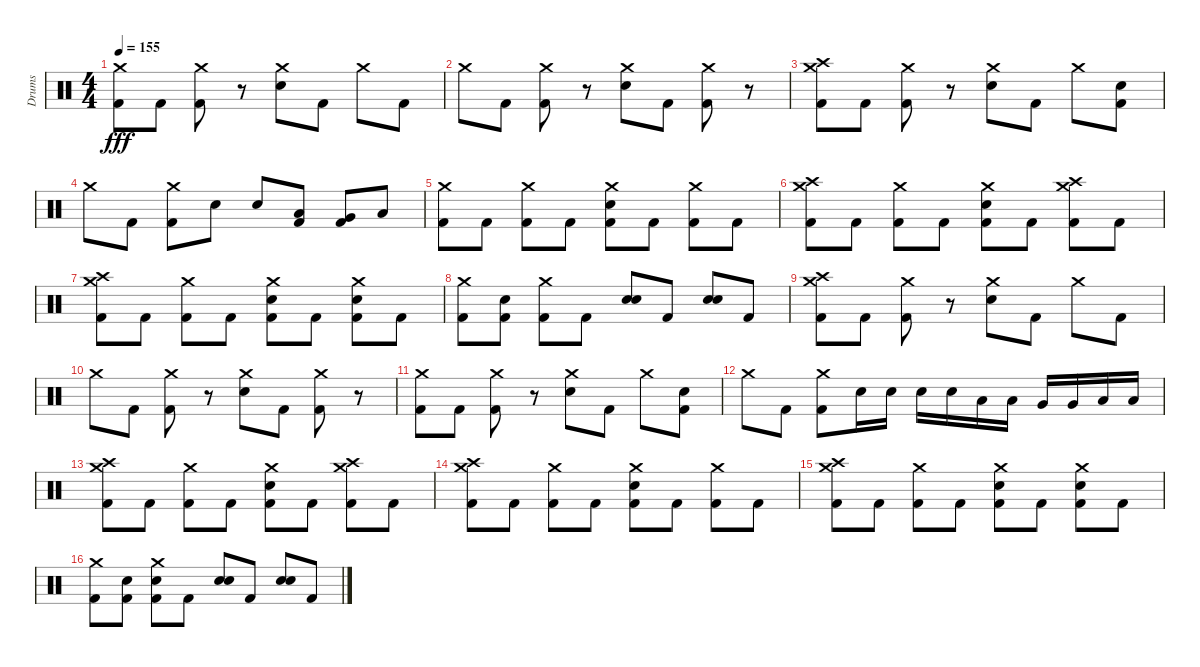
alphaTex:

\track ("Drums" "Drums") {instrument percussion}
\staff {score}
\articulation defaults
\ts (4 4)
\tempo 155
\clef neutral
\ks c
("Crash medium (hit)" "Kick (hit) 2").8{dy fff} "Kick (hit) 2".8 ("Crash medium (hit)" "Kick (hit) 2").8 r.8 ("Crash medium (hit)" "Electric Snare (hit)").8 "Kick (hit) 2".8 "Crash medium (hit)".8 "Kick (hit) 2".8 |
"Crash medium (hit)".8 "Kick (hit) 2".8 ("Crash medium (hit)" "Kick (hit) 2").8 r.8 ("Crash medium (hit)" "Electric Snare (hit)").8 "Kick (hit) 2".8 ("Crash medium (hit)" "Kick (hit) 2").8 r.8 |
("Crash high (hit)" "Crash medium (hit)" "Kick (hit) 2").8 "Kick (hit) 2".8 ("Crash medium (hit)" "Kick (hit) 2").8 r.8 ("Crash medium (hit)" "Electric Snare (hit)").8 "Kick (hit) 2".8 "Crash medium (hit)".8 ("Electric Snare (hit)" "Kick (hit) 2").8 |
"Crash medium (hit)".8 "Kick (hit) 2".8 ("Crash medium (hit)" "Kick (hit) 2").8 "Electric Snare (hit)".8 "Electric Snare (hit)".8 ("Low Tom (hit)" "Kick (hit) 2").8 ("Very Low Tom (hit)" "Kick (hit) 2").8 "Low Floor Tom (hit)".8 |
("Crash medium (hit)" "Kick (hit) 2").8 "Kick (hit) 2".8 ("Crash medium (hit)" "Kick (hit) 2").8 "Kick (hit) 2".8 ("Crash medium (hit)" "Electric Snare (hit)" "Kick (hit) 2").8 "Kick (hit) 2".8 ("Crash medium (hit)" "Kick (hit) 2").8 "Kick (hit) 2".8 |
("Crash high (hit)" "Crash medium (hit)" "Kick (hit) 2").8 "Kick (hit) 2".8 ("Crash medium (hit)" "Kick (hit) 2").8 "Kick (hit) 2".8 ("Crash medium (hit)" "Electric Snare (hit)" "Kick (hit) 2").8 "Kick (hit) 2".8 ("Crash high (hit)" "Crash medium (hit)" "Kick (hit) 2").8 "Kick (hit) 2".8 |
("Crash high (hit)" "Crash medium (hit)" "Kick (hit) 2").8 "Kick (hit) 2".8 ("Crash medium (hit)" "Kick (hit) 2").8 "Kick (hit) 2".8 ("Crash medium (hit)" "Electric Snare (hit)" "Kick (hit) 2").8 "Kick (hit) 2".8 ("Crash medium (hit)" "Electric Snare (hit)" "Kick (hit) 2").8 "Kick (hit) 2".8 |
("Crash medium (hit)" "Kick (hit) 2").8 ("Electric Snare (hit)" "Kick (hit) 2").8 ("Crash medium (hit)" "Kick (hit) 2").8 "Kick (hit) 2".8 ("Electric Snare (hit)" "Electric Snare (hit)").8 "Kick (hit) 2".8 ("Electric Snare (hit)" "Electric Snare (hit)").8 "Kick (hit) 2".8 |
("Crash high (hit)" "Crash medium (hit)" "Kick (hit) 2").8 "Kick (hit) 2".8 ("Crash medium (hit)" "Kick (hit) 2").8 r.8 ("Crash medium (hit)" "Electric Snare (hit)").8 "Kick (hit) 2".8 "Crash medium (hit)".8 "Kick (hit) 2".8 |
"Crash medium (hit)".8 "Kick (hit) 2".8 ("Crash medium (hit)" "Kick (hit) 2").8 r.8 ("Crash medium (hit)" "Electric Snare (hit)").8 "Kick (hit) 2".8 ("Crash medium (hit)" "Kick (hit) 2").8 r.8 |
("Crash medium (hit)" "Kick (hit) 2").8 "Kick (hit) 2".8 ("Crash medium (hit)" "Kick (hit) 2").8 r.8 ("Crash medium (hit)" "Electric Snare (hit)").8 "Kick (hit) 2".8 "Crash medium (hit)".8 ("Electric Snare (hit)" "Kick (hit) 2").8 |
"Crash medium (hit)".8 "Kick (hit) 2".8 ("Crash medium (hit)" "Kick (hit) 2").8 "Electric Snare (hit)".16 "Electric Snare (hit)".16 "Electric Snare (hit)".16 "Electric Snare (hit)".16 "Low Tom (hit)".16 "Low Tom (hit)".16 "Very Low Tom (hit)".16 "Very Low Tom (hit)".16 "Low Floor Tom (hit)".16 "Low Floor Tom (hit)".16 |
("Crash high (hit)" "Crash medium (hit)" "Kick (hit) 2").8 "Kick (hit) 2".8 ("Crash medium (hit)" "Kick (hit) 2").8 "Kick (hit) 2".8 ("Crash medium (hit)" "Electric Snare (hit)" "Kick (hit) 2").8 "Kick (hit) 2".8 ("Crash high (hit)" "Crash medium (hit)" "Kick (hit) 2").8 "Kick (hit) 2".8 |
("Crash high (hit)" "Crash medium (hit)" "Kick (hit) 2").8 "Kick (hit) 2".8 ("Crash medium (hit)" "Kick (hit) 2").8 "Kick (hit) 2".8 ("Crash medium (hit)" "Electric Snare (hit)" "Kick (hit) 2").8 "Kick (hit) 2".8 ("Crash medium (hit)" "Kick (hit) 2").8 "Kick (hit) 2".8 |
("Crash high (hit)" "Crash medium (hit)" "Kick (hit) 2").8 "Kick (hit) 2".8 ("Crash medium (hit)" "Kick (hit) 2").8 "Kick (hit) 2".8 ("Crash medium (hit)" "Electric Snare (hit)" "Kick (hit) 2").8 "Kick (hit) 2".8 ("Crash medium (hit)" "Electric Snare (hit)" "Kick (hit) 2").8 "Kick (hit) 2".8 |
("Crash medium (hit)" "Kick (hit) 2").8 ("Electric Snare (hit)" "Kick (hit) 2").8 ("Crash medium (hit)" "Electric Snare (hit)" "Kick (hit) 2").8 "Kick (hit) 2".8 ("Electric Snare (hit)" "Electric Snare (hit)").8 "Kick (hit) 2".8 ("Electric Snare (hit)" "Electric Snare (hit)").8 "Kick (hit) 2".8
